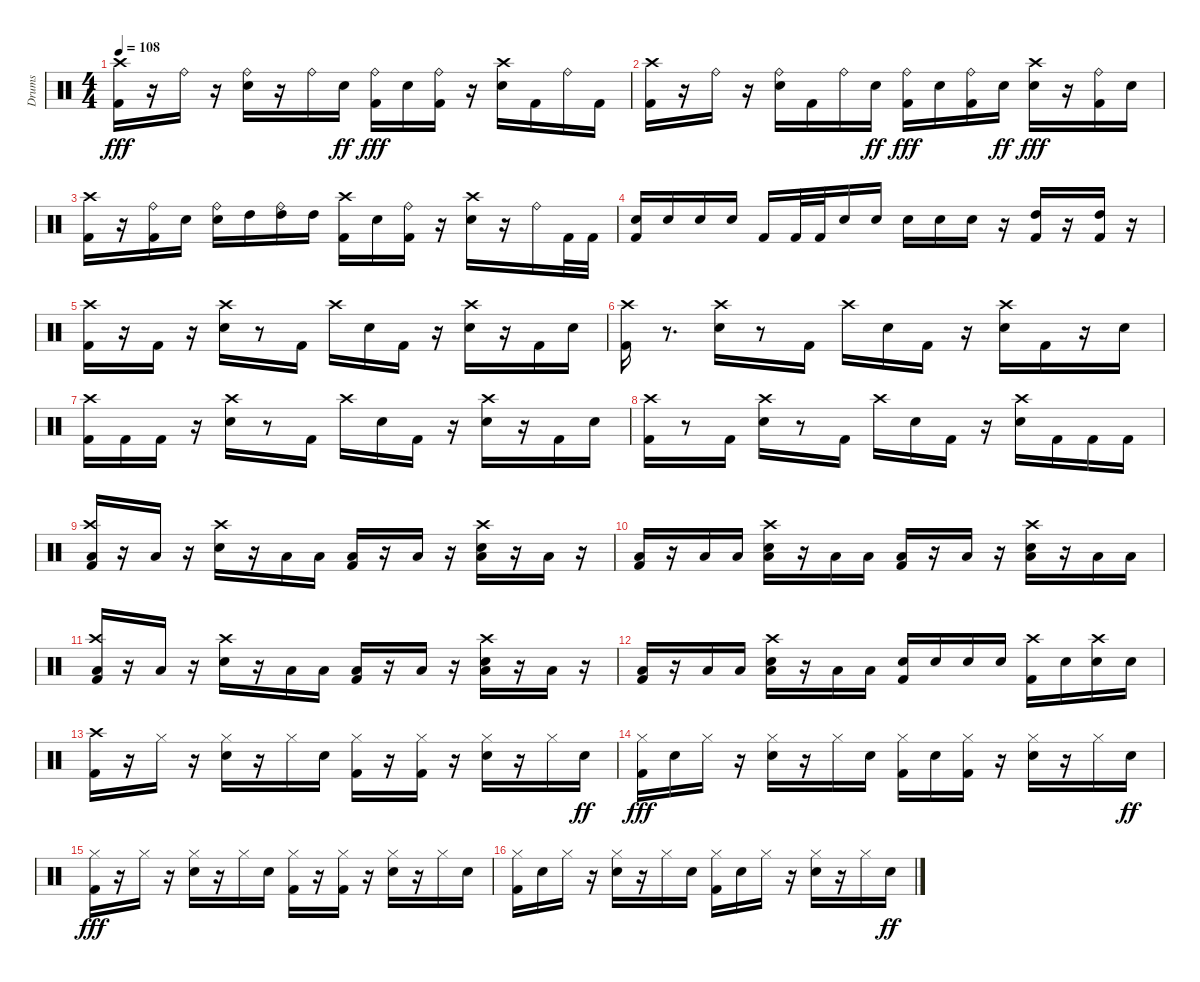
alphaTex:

\track ("Drums " "Drums ") {instrument percussion}
\staff {score}
\articulation defaults
\ts (4 4)
\tempo 108
\clef neutral
\ks c
("Kick (hit) 2" "Crash high (hit)").16{dy fff} r.16 "Ride (bell)".16 r.16 ("Snare (hit) 2" "Ride (bell)").16 r.16 "Ride (bell)".16 "Snare (hit) 2".16{dy ff} ("Kick (hit) 2" "Ride (bell)").16{dy fff} "Snare (hit) 2".16 ("Kick (hit) 2" "Ride (bell)").16 r.16 ("Snare (hit) 2" "Crash high (hit)").16 "Kick (hit) 2".16 "Ride (bell)".16 "Kick (hit) 2".16 |
("Kick (hit) 2" "Crash high (hit)").16 r.16 "Ride (bell)".16 r.16 ("Snare (hit) 2" "Ride (bell)").16 "Kick (hit) 2".16 "Ride (bell)".16 "Snare (hit) 2".16{dy ff} ("Kick (hit) 2" "Ride (bell)").16{dy fff} "Snare (hit) 2".16 ("Kick (hit) 2" "Ride (bell)").16 "Snare (hit) 2".16{dy ff} ("Snare (hit) 2" "Crash high (hit)").16{dy fff} r.16 ("Kick (hit) 2" "Ride (bell)").16 "Snare (hit) 2".16 |
("Kick (hit) 2" "Crash high (hit)").16 r.16 ("Kick (hit) 2" "Ride (bell)").16 "Snare (hit) 2".16 ("Snare (hit) 2" "Ride (bell)").16 "High Tom (hit)".16 ("High Tom (hit)" "Ride (bell)").16 "High Tom (hit)".16 ("Kick (hit) 2" "Crash high (hit)").16 "Snare (hit) 2".16 ("Kick (hit) 2" "Ride (bell)").16 r.16 ("Snare (hit) 2" "Crash high (hit)").16 r.16 "Ride (bell)".16 "Kick (hit) 2".32 "Kick (hit) 2".32 |
("Kick (hit) 2" "Snare (hit) 2").16 "Snare (hit) 2".16 "Snare (hit) 2".16 "Snare (hit) 2".16 "Kick (hit) 2".16 "Kick (hit) 2".32 "Kick (hit) 2".32 "Snare (hit) 2".16 "Snare (hit) 2".16 "Snare (hit) 2".16 "Snare (hit) 2".16 "Snare (hit) 2".16 r.16 ("Kick (hit) 2" "High Tom (hit)").16 r.16 ("Kick (hit) 2" "High Tom (hit)").16 r.16 |
("Kick (hit) 2" "Crash high (hit)").16 r.16 "Kick (hit) 2".16 r.16 ("Snare (hit) 2" "Crash high (hit)").16 r.8 "Kick (hit) 2".16 "Crash high (hit)".16 "Snare (hit) 2".16 "Kick (hit) 2".16 r.16 ("Snare (hit) 2" "Crash high (hit)").16 r.16 "Kick (hit) 2".16 "Snare (hit) 2".16 |
("Kick (hit) 2" "Crash high (hit)").16 r.8{d} ("Snare (hit) 2" "Crash high (hit)").16 r.8 "Kick (hit) 2".16 "Crash high (hit)".16 "Snare (hit) 2".16 "Kick (hit) 2".16 r.16 ("Snare (hit) 2" "Crash high (hit)").16 "Kick (hit) 2".16 r.16 "Snare (hit) 2".16 |
("Kick (hit) 2" "Crash high (hit)").16 "Kick (hit) 2".16 "Kick (hit) 2".16 r.16 ("Snare (hit) 2" "Crash high (hit)").16 r.8 "Kick (hit) 2".16 "Crash high (hit)".16 "Snare (hit) 2".16 "Kick (hit) 2".16 r.16 ("Snare (hit) 2" "Crash high (hit)").16 r.16 "Kick (hit) 2".16 "Snare (hit) 2".16 |
("Kick (hit) 2" "Crash high (hit)").16 r.8 "Kick (hit) 2".16 ("Snare (hit) 2" "Crash high (hit)").16 r.8 "Kick (hit) 2".16 "Crash high (hit)".16 "Snare (hit) 2".16 "Kick (hit) 2".16 r.16 ("Snare (hit) 2" "Crash high (hit)").16 "Kick (hit) 2".16 "Kick (hit) 2".16 "Kick (hit) 2".16 |
("Kick (hit) 2" "Low Tom (hit)" "Crash high (hit)").16 r.16 "Low Tom (hit)".16 r.16 ("Snare (hit) 2" "Crash high (hit)").16 r.16 "Low Tom (hit)".16 "Low Tom (hit)".16 ("Kick (hit) 2" "Low Tom (hit)").16 r.16 "Low Tom (hit)".16 r.16 ("Snare (hit) 2" "Low Tom (hit)" "Crash high (hit)").16 r.16 "Low Tom (hit)".16 r.16 |
("Kick (hit) 2" "Low Tom (hit)").16 r.16 "Low Tom (hit)".16 "Low Tom (hit)".16 ("Snare (hit) 2" "Low Tom (hit)" "Crash high (hit)").16 r.16 "Low Tom (hit)".16 "Low Tom (hit)".16 ("Kick (hit) 2" "Low Tom (hit)").16 r.16 "Low Tom (hit)".16 r.16 ("Snare (hit) 2" "Low Tom (hit)" "Crash high (hit)").16 r.16 "Low Tom (hit)".16 "Low Tom (hit)".16 |
("Kick (hit) 2" "Low Tom (hit)" "Crash high (hit)").16 r.16 "Low Tom (hit)".16 r.16 ("Snare (hit) 2" "Crash high (hit)").16 r.16 "Low Tom (hit)".16 "Low Tom (hit)".16 ("Kick (hit) 2" "Low Tom (hit)").16 r.16 "Low Tom (hit)".16 r.16 ("Snare (hit) 2" "Low Tom (hit)" "Crash high (hit)").16 r.16 "Low Tom (hit)".16 r.16 |
("Kick (hit) 2" "Low Tom (hit)").16 r.16 "Low Tom (hit)".16 "Low Tom (hit)".16 ("Snare (hit) 2" "Low Tom (hit)" "Crash high (hit)").16 r.16 "Low Tom (hit)".16 "Low Tom (hit)".16 ("Kick (hit) 2" "Snare (hit) 2").16 "Snare (hit) 2".16 "Snare (hit) 2".16 "Snare (hit) 2".16 ("Kick (hit) 2" "Crash high (hit)").16 "Snare (hit) 2".16 ("Snare (hit) 2" "Crash high (hit)").16 "Snare (hit) 2".16 |
("Kick (hit) 2" "Crash high (hit)").16 r.16 "Hi-Hat (closed)".16 r.16 ("Snare (hit) 2" "Hi-Hat (closed)").16 r.16 "Hi-Hat (closed)".16 "Snare (hit) 2".16 ("Kick (hit) 2" "Hi-Hat (closed)").16 r.16 ("Kick (hit) 2" "Hi-Hat (closed)").16 r.16 ("Snare (hit) 2" "Hi-Hat (closed)").16 r.16 "Hi-Hat (closed)".16 "Snare (hit) 2".16{dy ff} |
("Kick (hit) 2" "Hi-Hat (closed)").16{dy fff} "Snare (hit) 2".16 "Hi-Hat (closed)".16 r.16 ("Snare (hit) 2" "Hi-Hat (closed)").16 r.16 "Hi-Hat (closed)".16 "Snare (hit) 2".16 ("Kick (hit) 2" "Hi-Hat (closed)").16 "Snare (hit) 2".16 ("Kick (hit) 2" "Hi-Hat (closed)").16 r.16 ("Snare (hit) 2" "Hi-Hat (closed)").16 r.16 "Hi-Hat (closed)".16 "Snare (hit) 2".16{dy ff} |
("Kick (hit) 2" "Hi-Hat (closed)").16{dy fff} r.16 "Hi-Hat (closed)".16 r.16 ("Snare (hit) 2" "Hi-Hat (closed)").16 r.16 "Hi-Hat (closed)".16 "Snare (hit) 2".16 ("Kick (hit) 2" "Hi-Hat (closed)").16 r.16 ("Kick (hit) 2" "Hi-Hat (closed)").16 r.16 ("Snare (hit) 2" "Hi-Hat (closed)").16 r.16 "Hi-Hat (closed)".16 "Snare (hit) 2".16 |
("Kick (hit) 2" "Hi-Hat (closed)").16 "Snare (hit) 2".16 "Hi-Hat (closed)".16 r.16 ("Snare (hit) 2" "Hi-Hat (closed)").16 r.16 "Hi-Hat (closed)".16 "Snare (hit) 2".16 ("Kick (hit) 2" "Hi-Hat (closed)").16 "Snare (hit) 2".16 "Hi-Hat (closed)".16 r.16 ("Snare (hit) 2" "Hi-Hat (closed)").16 r.16 "Hi-Hat (closed)".16 "Snare (hit) 2".16{dy ff}
